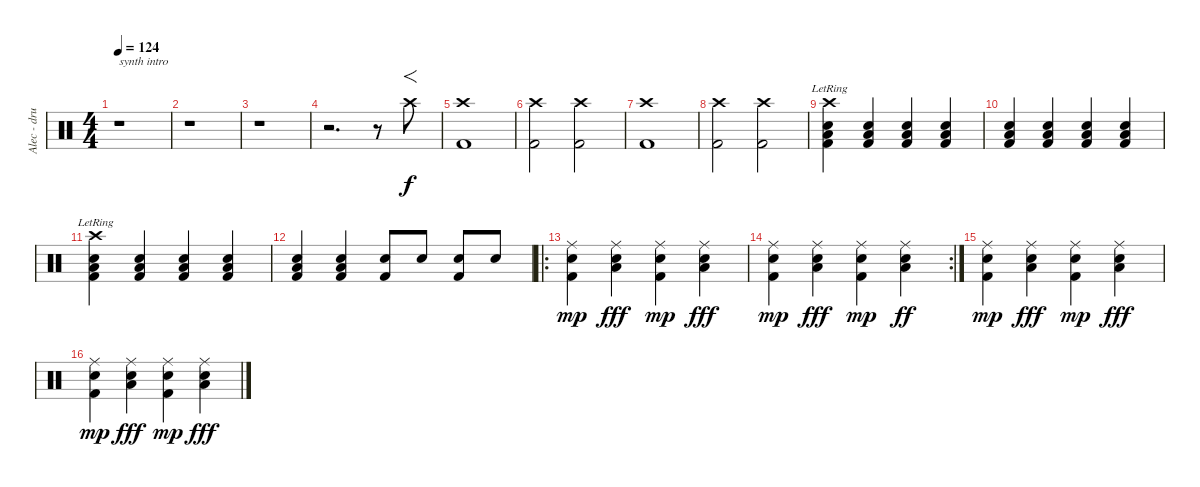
\track ("Alec - drums" "Alec - dru") {instrument percussion}
\staff {score}
\articulation defaults
\ts (4 4)
\tempo 124
\clef neutral
\ks c
r.1{txt "synth intro" dy f} |
r.1 |
r.1 |
r.2{d} r.8 "Crash high (hit)".8{f} |
("Crash high (hit)" "Kick (hit) 2").1 |
("Crash high (hit)" "Kick (hit) 2").2 ("Crash high (hit)" "Kick (hit) 2").2 |
("Crash high (hit)" "Kick (hit) 2").1 |
("Crash high (hit)" "Kick (hit) 2").2 ("Crash high (hit)" "Kick (hit) 2").2 |
("Crash high (hit)"{lr} "Kick (hit) 2" "Snare (hit) 2" "Low Tom (hit)").4 ("Kick (hit) 2" "Snare (hit) 2" "Low Tom (hit)").4 ("Kick (hit) 2" "Snare (hit) 2" "Low Tom (hit)").4 ("Kick (hit) 2" "Snare (hit) 2" "Low Tom (hit)").4 |
("Kick (hit) 2" "Snare (hit) 2" "Low Tom (hit)").4 ("Kick (hit) 2" "Snare (hit) 2" "Low Tom (hit)").4 ("Kick (hit) 2" "Snare (hit) 2" "Low Tom (hit)").4 ("Kick (hit) 2" "Snare (hit) 2" "Low Tom (hit)").4 |
("Crash high (hit)"{lr} "Kick (hit) 2" "Snare (hit) 2" "Low Tom (hit)").4 ("Kick (hit) 2" "Snare (hit) 2" "Low Tom (hit)").4 ("Kick (hit) 2" "Snare (hit) 2" "Low Tom (hit)").4 ("Kick (hit) 2" "Snare (hit) 2" "Low Tom (hit)").4 |
("Kick (hit) 2" "Snare (hit) 2" "Low Tom (hit)").4 ("Kick (hit) 2" "Snare (hit) 2" "Low Tom (hit)").4 ("Kick (hit) 2" "Snare (hit) 2").8 "Snare (hit) 2".8 ("Kick (hit) 2" "Snare (hit) 2").8 "Snare (hit) 2".8 |
\ro
("Ride (middle)" "Snare (hit) 2" "Kick (hit) 2").4{dy mp} ("Ride (middle)" "Low Tom (hit)" "Snare (hit) 2").4{dy fff} ("Ride (middle)" "Snare (hit) 2" "Kick (hit) 2").4{dy mp} ("Ride (middle)" "Low Tom (hit)" "Snare (hit) 2").4{dy fff} |
\rc 2
("Ride (middle)" "Snare (hit) 2" "Kick (hit) 2").4{dy mp} ("Ride (middle)" "Low Tom (hit)" "Snare (hit) 2").4{dy fff} ("Ride (middle)" "Snare (hit) 2" "Kick (hit) 2").4{dy mp} ("Ride (middle)" "Low Tom (hit)" "Snare (hit) 2").4{dy ff} |
("Ride (middle)" "Snare (hit) 2" "Kick (hit) 2").4{dy mp} ("Ride (middle)" "Low Tom (hit)" "Snare (hit) 2").4{dy fff} ("Ride (middle)" "Snare (hit) 2" "Kick (hit) 2").4{dy mp} ("Ride (middle)" "Low Tom (hit)" "Snare (hit) 2").4{dy fff} |
("Ride (middle)" "Snare (hit) 2" "Kick (hit) 2").4{dy mp} ("Ride (middle)" "Low Tom (hit)" "Snare (hit) 2").4{dy fff} ("Ride (middle)" "Snare (hit) 2" "Kick (hit) 2").4{dy mp} ("Ride (middle)" "Low Tom (hit)" "Snare (hit) 2").4{dy fff}
